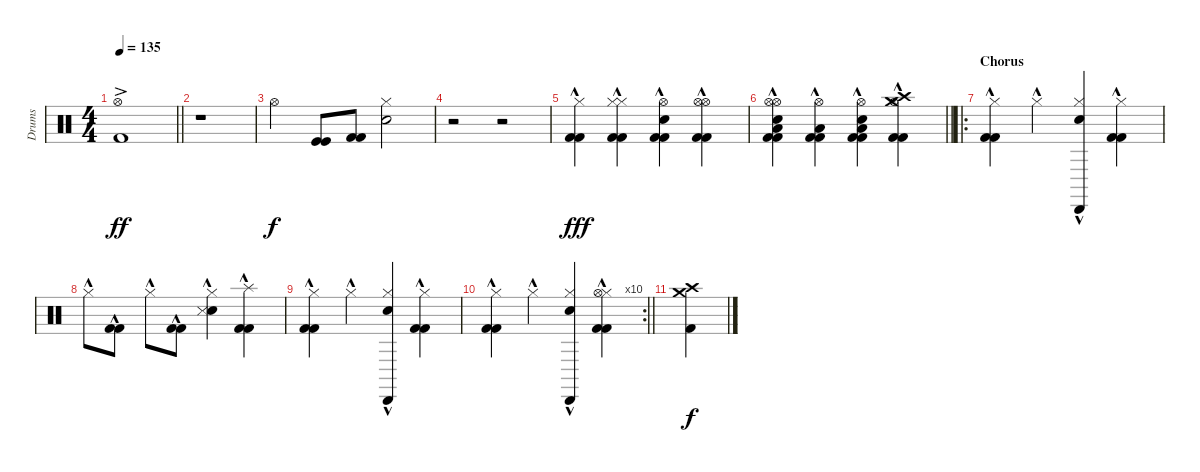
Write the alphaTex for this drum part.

\track ("Drums" "Drums") {instrument percussion}
\staff {score}
\articulation defaults
\ts (4 4)
\tempo 135
\clef neutral
\barLineRight lightlight
\ks c
("Hi-Hat (open)"{ac} "Kick (hit) 2"{ac}).1{dy ff} |
r.1 |
"Hi-Hat (open)".4{dy f} ("Kick (hit)" "Kick (hit)").8 ("Kick (hit) 2" "Kick (hit) 2").8 ("Electric Snare (hit)" "Hi-Hat (closed)").2 |
r.2 r.2 |
("Hi-Hat (closed)"{hac} "Kick (hit) 2"{hac} "Kick (hit) 2"{hac}).4{dy fff} ("Kick (hit) 2"{hac} "Kick (hit) 2"{hac} "Hi-Hat (closed)"{hac} "Hi-Hat (closed)"{hac}).4 ("Kick (hit) 2"{hac} "Kick (hit) 2"{hac} "Hi-Hat (open)"{hac} "Electric Snare (hit)").4 ("Kick (hit) 2"{hac} "Kick (hit) 2"{hac} "Hi-Hat (open)"{hac} "Hi-Hat (open)"{hac}).4 |
\barLineRight lightlight
("Kick (hit) 2"{hac} "Kick (hit) 2"{hac} "Hi-Hat (open)"{hac} "Hi-Hat (open)"{hac} "Low Floor Tom (hit)" "Electric Snare (hit)").4 ("Kick (hit) 2"{hac} "Low Floor Tom (hit)"{hac} "Hi-Hat (open)"{hac} "Kick (hit) 2").4 ("Kick (hit) 2"{hac} "Kick (hit) 2"{hac} "Hi-Hat (open)"{hac} "Low Floor Tom (hit)"{hac} "Electric Snare (hit)").4 ("Hi-Hat (open)"{hac} "Crash medium (hit)"{hac} "Crash high (hit)"{hac} "Kick (hit) 2"{hac} "Kick (hit) 2"{hac}).4 |
\ro
\section ("" "Chorus")
("Hi-Hat (closed)"{hac} "Kick (hit) 2"{hac} "Kick (hit) 2"{hac}).4 "Hi-Hat (closed)"{hac}.4 ("Hi-Hat (closed)"{hac} "Cabasa (hit)"{hac} "Electric Snare (hit)"{hac}).4 ("Hi-Hat (closed)"{hac} "Kick (hit) 2"{hac} "Kick (hit) 2"{hac}).4 |
"Hi-Hat (closed)"{hac}.8 ("Kick (hit) 2"{hac} "Kick (hit) 2"{hac}).8 "Hi-Hat (closed)"{hac}.8 ("Kick (hit) 2"{hac} "Kick (hit) 2"{hac}).8 ("Hi-Hat (closed)" "Electric Snare (hit)"{hac} "Snare (side stick) 3"{hac}).4 ("Splash (hit)"{hac} "Kick (hit) 2"{hac} "Kick (hit) 2"{hac}).4 |
("Hi-Hat (closed)"{hac} "Kick (hit) 2"{hac} "Kick (hit) 2"{hac}).4 "Hi-Hat (closed)"{hac}.4 ("Hi-Hat (closed)"{hac} "Cabasa (hit)"{hac} "Electric Snare (hit)"{hac}).4 ("Hi-Hat (closed)"{hac} "Kick (hit) 2"{hac} "Kick (hit) 2"{hac}).4 |
\rc 10
\barLineRight lightlight
("Hi-Hat (closed)"{hac} "Kick (hit) 2"{hac} "Kick (hit) 2"{hac}).4 "Hi-Hat (closed)"{hac}.4 ("Hi-Hat (closed)"{hac} "Cabasa (hit)"{hac} "Electric Snare (hit)"{hac}).4 ("Hi-Hat (closed)"{hac} "Kick (hit) 2"{hac} "Kick (hit) 2"{hac} "Hi-Hat (open)"{hac}).4 |
("Crash high (hit)" "Crash medium (hit)" "Kick (hit) 2").4{dy f}
